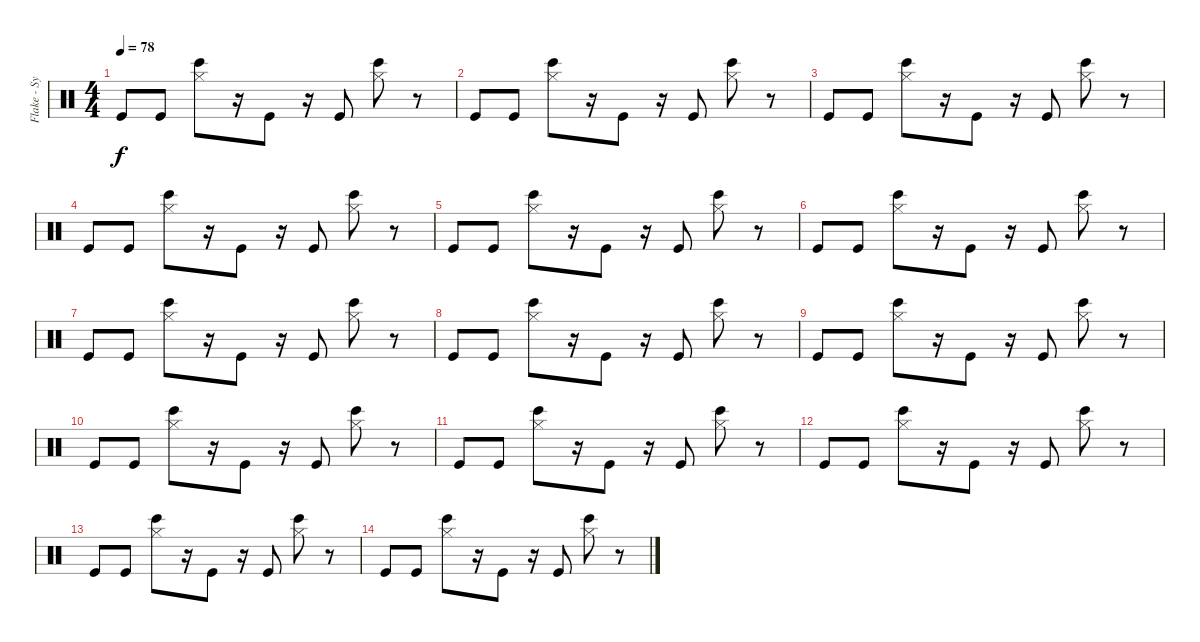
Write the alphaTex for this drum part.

\track ("Flake - Synth Drums" "Flake - Sy") {instrument percussion}
\staff {score}
\articulation defaults
\ts (4 4)
\tempo 78
\clef neutral
\ks c "Kick (hit)".8{dy f} "Kick (hit)".8
("Bongo High (hit)" "Hi-Hat (closed)").8 r.16 "Kick (hit)".8 r.16 "Kick (hit)".8 ("Bongo High (hit)" "Hi-Hat (closed)").8 r.8 |
"Kick (hit)".8 "Kick (hit)".8 ("Bongo High (hit)" "Hi-Hat (closed)").8 r.16 "Kick (hit)".8 r.16 "Kick (hit)".8 ("Bongo High (hit)" "Hi-Hat (closed)").8 r.8 |
"Kick (hit)".8 "Kick (hit)".8 ("Bongo High (hit)" "Hi-Hat (closed)").8 r.16 "Kick (hit)".8 r.16 "Kick (hit)".8 ("Bongo High (hit)" "Hi-Hat (closed)").8 r.8 |
"Kick (hit)".8 "Kick (hit)".8 ("Bongo High (hit)" "Hi-Hat (closed)").8 r.16 "Kick (hit)".8 r.16 "Kick (hit)".8 ("Bongo High (hit)" "Hi-Hat (closed)").8 r.8 |
"Kick (hit)".8 "Kick (hit)".8 ("Bongo High (hit)" "Hi-Hat (closed)").8 r.16 "Kick (hit)".8 r.16 "Kick (hit)".8 ("Bongo High (hit)" "Hi-Hat (closed)").8 r.8 |
"Kick (hit)".8 "Kick (hit)".8 ("Bongo High (hit)" "Hi-Hat (closed)").8 r.16 "Kick (hit)".8 r.16 "Kick (hit)".8 ("Bongo High (hit)" "Hi-Hat (closed)").8 r.8 |
"Kick (hit)".8 "Kick (hit)".8 ("Bongo High (hit)" "Hi-Hat (closed)").8 r.16 "Kick (hit)".8 r.16 "Kick (hit)".8 ("Bongo High (hit)" "Hi-Hat (closed)").8 r.8 |
"Kick (hit)".8 "Kick (hit)".8 ("Bongo High (hit)" "Hi-Hat (closed)").8 r.16 "Kick (hit)".8 r.16 "Kick (hit)".8 ("Bongo High (hit)" "Hi-Hat (closed)").8 r.8 |
"Kick (hit)".8 "Kick (hit)".8 ("Bongo High (hit)" "Hi-Hat (closed)").8 r.16 "Kick (hit)".8 r.16 "Kick (hit)".8 ("Bongo High (hit)" "Hi-Hat (closed)").8 r.8 |
"Kick (hit)".8 "Kick (hit)".8 ("Bongo High (hit)" "Hi-Hat (closed)").8 r.16 "Kick (hit)".8 r.16 "Kick (hit)".8 ("Bongo High (hit)" "Hi-Hat (closed)").8 r.8 |
"Kick (hit)".8 "Kick (hit)".8 ("Bongo High (hit)" "Hi-Hat (closed)").8 r.16 "Kick (hit)".8 r.16 "Kick (hit)".8 ("Bongo High (hit)" "Hi-Hat (closed)").8 r.8 |
"Kick (hit)".8 "Kick (hit)".8 ("Bongo High (hit)" "Hi-Hat (closed)").8 r.16 "Kick (hit)".8 r.16 "Kick (hit)".8 ("Bongo High (hit)" "Hi-Hat (closed)").8 r.8 |
"Kick (hit)".8 "Kick (hit)".8 ("Bongo High (hit)" "Hi-Hat (closed)").8 r.16 "Kick (hit)".8 r.16 "Kick (hit)".8 ("Bongo High (hit)" "Hi-Hat (closed)").8 r.8 |
"Kick (hit)".8 "Kick (hit)".8 ("Bongo High (hit)" "Hi-Hat (closed)").8 r.16 "Kick (hit)".8 r.16 "Kick (hit)".8 ("Bongo High (hit)" "Hi-Hat (closed)").8 r.8
